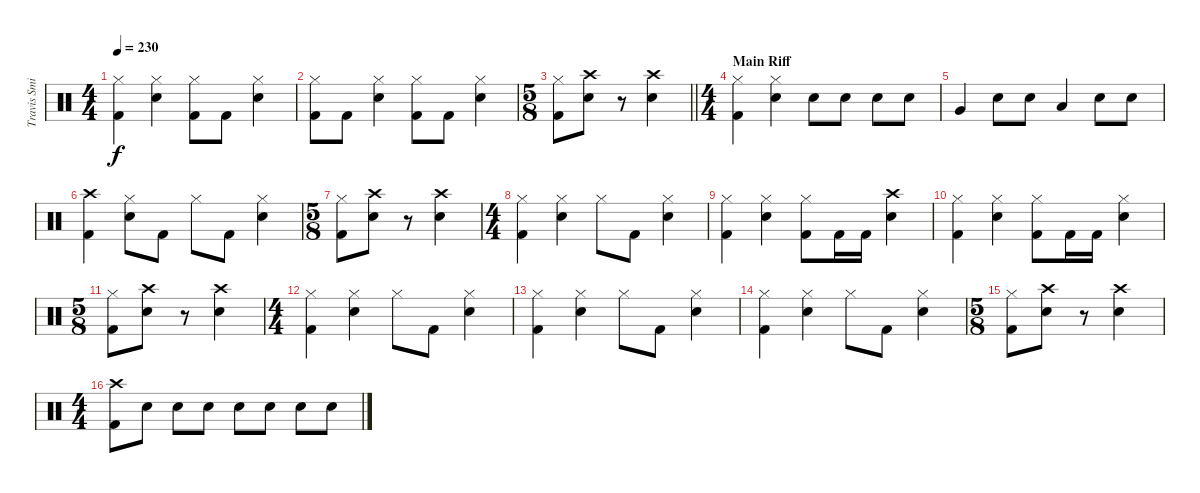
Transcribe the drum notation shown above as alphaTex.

\track ("Travis Smith (Drums)" "Travis Smi") {instrument percussion}
\staff {score}
\articulation defaults
\ts (4 4)
\tempo 230
\clef neutral
\ks c
("Hi-Hat (closed)" "Kick (hit) 2").4{dy f} ("Hi-Hat (closed)" "Electric Snare (hit)").4 ("Hi-Hat (closed)" "Kick (hit) 2").8 "Kick (hit) 2".8 ("Hi-Hat (closed)" "Electric Snare (hit)").4 |
("Hi-Hat (closed)" "Kick (hit) 2").8 "Kick (hit) 2".8 ("Hi-Hat (closed)" "Electric Snare (hit)").4 ("Hi-Hat (closed)" "Kick (hit) 2").8 "Kick (hit) 2".8 ("Hi-Hat (closed)" "Electric Snare (hit)").4 |
\ts (5 8)
\barLineRight lightlight
("Hi-Hat (closed)" "Kick (hit) 2").8 ("Crash high (hit)" "Electric Snare (hit)").8 r.8 ("Crash high (hit)" "Electric Snare (hit)").4 |
\ts (4 4)
\section ("" "Main Riff")
("Hi-Hat (closed)" "Kick (hit) 2").4 ("Hi-Hat (closed)" "Electric Snare (hit)").4 "Electric Snare (hit)".8 "Electric Snare (hit)".8 "Electric Snare (hit)".8 "Electric Snare (hit)".8 |
"Very Low Tom (hit)".4 "Electric Snare (hit)".8 "Electric Snare (hit)".8 "Low Floor Tom (hit)".4 "Electric Snare (hit)".8 "Electric Snare (hit)".8 |
("Crash high (hit)" "Kick (hit) 2").4 ("Hi-Hat (closed)" "Electric Snare (hit)").8 "Kick (hit) 2".8 "Hi-Hat (closed)".8 "Kick (hit) 2".8 ("Hi-Hat (closed)" "Electric Snare (hit)").4 |
\ts (5 8)
("Hi-Hat (closed)" "Kick (hit) 2").8 ("Crash high (hit)" "Electric Snare (hit)").8 r.8 ("Crash high (hit)" "Electric Snare (hit)").4 |
\ts (4 4)
("Hi-Hat (closed)" "Kick (hit) 2").4 ("Hi-Hat (closed)" "Electric Snare (hit)").4 "Hi-Hat (closed)".8 "Kick (hit) 2".8 ("Hi-Hat (closed)" "Electric Snare (hit)").4 |
("Hi-Hat (closed)" "Kick (hit) 2").4 ("Hi-Hat (closed)" "Electric Snare (hit)").4 ("Hi-Hat (closed)" "Kick (hit) 2").8 "Kick (hit) 2".16 "Kick (hit) 2".16 ("Crash high (hit)" "Electric Snare (hit)").4 |
("Hi-Hat (closed)" "Kick (hit) 2").4 ("Hi-Hat (closed)" "Electric Snare (hit)").4 ("Hi-Hat (closed)" "Kick (hit) 2").8 "Kick (hit) 2".16 "Kick (hit) 2".16 ("Hi-Hat (closed)" "Electric Snare (hit)").4 |
\ts (5 8)
("Hi-Hat (closed)" "Kick (hit) 2").8 ("Crash high (hit)" "Electric Snare (hit)").8 r.8 ("Crash high (hit)" "Electric Snare (hit)").4 |
\ts (4 4)
("Hi-Hat (closed)" "Kick (hit) 2").4 ("Hi-Hat (closed)" "Electric Snare (hit)").4 "Hi-Hat (closed)".8 "Kick (hit) 2".8 ("Hi-Hat (closed)" "Electric Snare (hit)").4 |
("Hi-Hat (closed)" "Kick (hit) 2").4 ("Hi-Hat (closed)" "Electric Snare (hit)").4 "Hi-Hat (closed)".8 "Kick (hit) 2".8 ("Hi-Hat (closed)" "Electric Snare (hit)").4 |
("Hi-Hat (closed)" "Kick (hit) 2").4 ("Hi-Hat (closed)" "Electric Snare (hit)").4 "Hi-Hat (closed)".8 "Kick (hit) 2".8 ("Hi-Hat (closed)" "Electric Snare (hit)").4 |
\ts (5 8)
("Hi-Hat (closed)" "Kick (hit) 2").8 ("Crash high (hit)" "Electric Snare (hit)").8 r.8 ("Crash high (hit)" "Electric Snare (hit)").4 |
\ts (4 4)
("Crash high (hit)" "Kick (hit) 2").8 "Electric Snare (hit)".8 "Electric Snare (hit)".8 "Electric Snare (hit)".8 "Electric Snare (hit)".8 "Electric Snare (hit)".8 "Electric Snare (hit)".8 "Electric Snare (hit)".8
